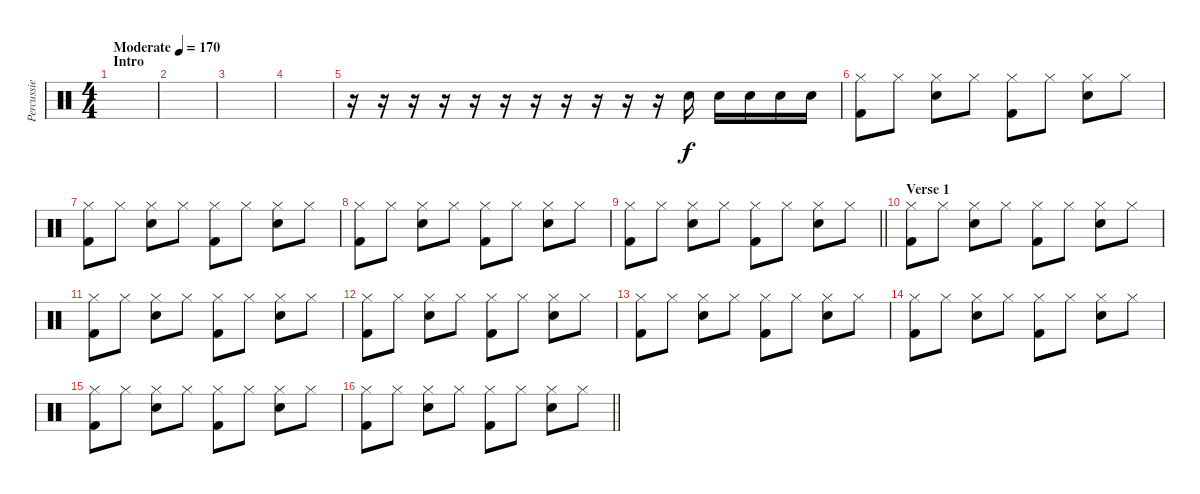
\track ("Percussie" "Percussie") {instrument percussion}
\staff {score}
\articulation defaults
\ts (4 4)
\section ("" "Intro")
\tempo (170 "Moderate")
\clef neutral
\ks c
|
|
|
|
r.16 r.16 r.16 r.16 r.16 r.16 r.16 r.16 r.16 r.16 r.16 "Electric Snare (hit)".16 "Electric Snare (hit)".16 "Electric Snare (hit)".16 "Electric Snare (hit)".16 "Electric Snare (hit)".16 |
("Hi-Hat (closed)" "Kick (hit) 2").8 "Hi-Hat (closed)".8 ("Hi-Hat (closed)" "Electric Snare (hit)").8 "Hi-Hat (closed)".8 ("Hi-Hat (closed)" "Kick (hit) 2").8 "Hi-Hat (closed)".8 ("Hi-Hat (closed)" "Electric Snare (hit)").8 "Hi-Hat (closed)".8 |
("Hi-Hat (closed)" "Kick (hit) 2").8 "Hi-Hat (closed)".8 ("Hi-Hat (closed)" "Electric Snare (hit)").8 "Hi-Hat (closed)".8 ("Hi-Hat (closed)" "Kick (hit) 2").8 "Hi-Hat (closed)".8 ("Hi-Hat (closed)" "Electric Snare (hit)").8 "Hi-Hat (closed)".8 |
("Hi-Hat (closed)" "Kick (hit) 2").8 "Hi-Hat (closed)".8 ("Hi-Hat (closed)" "Electric Snare (hit)").8 "Hi-Hat (closed)".8 ("Hi-Hat (closed)" "Kick (hit) 2").8 "Hi-Hat (closed)".8 ("Hi-Hat (closed)" "Electric Snare (hit)").8 "Hi-Hat (closed)".8 |
\barLineRight lightlight
("Hi-Hat (closed)" "Kick (hit) 2").8 "Hi-Hat (closed)".8 ("Hi-Hat (closed)" "Electric Snare (hit)").8 "Hi-Hat (closed)".8 ("Hi-Hat (closed)" "Kick (hit) 2").8 "Hi-Hat (closed)".8 ("Hi-Hat (closed)" "Electric Snare (hit)").8 "Hi-Hat (closed)".8 |
\section ("" "Verse 1")
("Hi-Hat (closed)" "Kick (hit) 2").8 "Hi-Hat (closed)".8 ("Hi-Hat (closed)" "Electric Snare (hit)").8 "Hi-Hat (closed)".8 ("Hi-Hat (closed)" "Kick (hit) 2").8 "Hi-Hat (closed)".8 ("Hi-Hat (closed)" "Electric Snare (hit)").8 "Hi-Hat (closed)".8 |
("Hi-Hat (closed)" "Kick (hit) 2").8 "Hi-Hat (closed)".8 ("Hi-Hat (closed)" "Electric Snare (hit)").8 "Hi-Hat (closed)".8 ("Hi-Hat (closed)" "Kick (hit) 2").8 "Hi-Hat (closed)".8 ("Hi-Hat (closed)" "Electric Snare (hit)").8 "Hi-Hat (closed)".8 |
("Hi-Hat (closed)" "Kick (hit) 2").8 "Hi-Hat (closed)".8 ("Hi-Hat (closed)" "Electric Snare (hit)").8 "Hi-Hat (closed)".8 ("Hi-Hat (closed)" "Kick (hit) 2").8 "Hi-Hat (closed)".8 ("Hi-Hat (closed)" "Electric Snare (hit)").8 "Hi-Hat (closed)".8 |
("Hi-Hat (closed)" "Kick (hit) 2").8 "Hi-Hat (closed)".8 ("Hi-Hat (closed)" "Electric Snare (hit)").8 "Hi-Hat (closed)".8 ("Hi-Hat (closed)" "Kick (hit) 2").8 "Hi-Hat (closed)".8 ("Hi-Hat (closed)" "Electric Snare (hit)").8 "Hi-Hat (closed)".8 |
("Hi-Hat (closed)" "Kick (hit) 2").8 "Hi-Hat (closed)".8 ("Hi-Hat (closed)" "Electric Snare (hit)").8 "Hi-Hat (closed)".8 ("Hi-Hat (closed)" "Kick (hit) 2").8 "Hi-Hat (closed)".8 ("Hi-Hat (closed)" "Electric Snare (hit)").8 "Hi-Hat (closed)".8 |
("Hi-Hat (closed)" "Kick (hit) 2").8 "Hi-Hat (closed)".8 ("Hi-Hat (closed)" "Electric Snare (hit)").8 "Hi-Hat (closed)".8 ("Hi-Hat (closed)" "Kick (hit) 2").8 "Hi-Hat (closed)".8 ("Hi-Hat (closed)" "Electric Snare (hit)").8 "Hi-Hat (closed)".8 |
\barLineRight lightlight
("Hi-Hat (closed)" "Kick (hit) 2").8 "Hi-Hat (closed)".8 ("Hi-Hat (closed)" "Electric Snare (hit)").8 "Hi-Hat (closed)".8 ("Hi-Hat (closed)" "Kick (hit) 2").8 "Hi-Hat (closed)".8 ("Hi-Hat (closed)" "Electric Snare (hit)").8 "Hi-Hat (closed)".8
